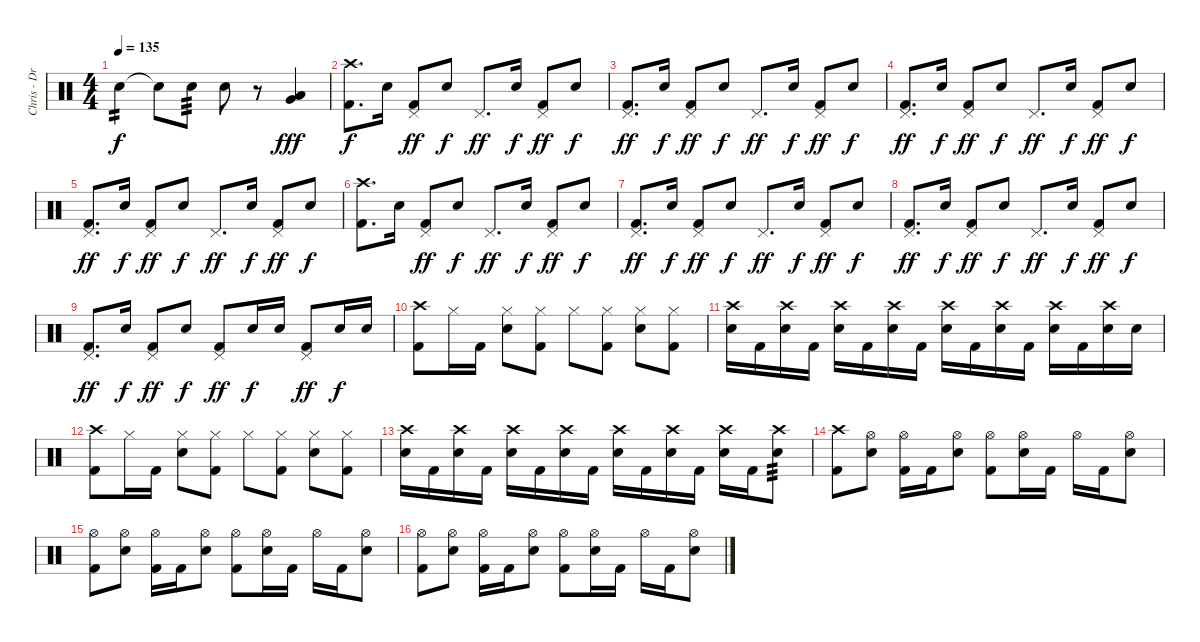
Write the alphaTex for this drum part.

\track ("Chris - Drums" "Chris - Dr") {instrument percussion}
\staff {score}
\articulation defaults
\ts (4 4)
\tempo 135
\clef neutral
\ks c "Electric Snare (hit)".4{tp 2 dy f} "Snare (hit)"{t}.8 "Electric Snare (hit)".8{tp 3} "Electric Snare (hit)".8
r.8 ("Low Tom (hit)" "Very Low Tom (hit)").4{dy fff} |
("Crash high (hit)" "Kick (hit) 2").8{d dy f} "Electric Snare (hit)".16 ("Pedal Hi-Hat (hit)" "Kick (hit) 2").8{dy ff} "Electric Snare (hit)".8{dy f} "Pedal Hi-Hat (hit)".8{d dy ff} "Electric Snare (hit)".16{dy f} ("Pedal Hi-Hat (hit)" "Kick (hit) 2").8{dy ff} "Electric Snare (hit)".8{dy f} |
("Pedal Hi-Hat (hit)" "Kick (hit) 2").8{d dy ff} "Electric Snare (hit)".16{dy f} ("Pedal Hi-Hat (hit)" "Kick (hit) 2").8{dy ff} "Electric Snare (hit)".8{dy f} "Pedal Hi-Hat (hit)".8{d dy ff} "Electric Snare (hit)".16{dy f} ("Pedal Hi-Hat (hit)" "Kick (hit) 2").8{dy ff} "Electric Snare (hit)".8{dy f} |
("Pedal Hi-Hat (hit)" "Kick (hit) 2").8{d dy ff} "Electric Snare (hit)".16{dy f} ("Pedal Hi-Hat (hit)" "Kick (hit) 2").8{dy ff} "Electric Snare (hit)".8{dy f} "Pedal Hi-Hat (hit)".8{d dy ff} "Electric Snare (hit)".16{dy f} ("Pedal Hi-Hat (hit)" "Kick (hit) 2").8{dy ff} "Electric Snare (hit)".8{dy f} |
("Pedal Hi-Hat (hit)" "Kick (hit) 2").8{d dy ff} "Electric Snare (hit)".16{dy f} ("Pedal Hi-Hat (hit)" "Kick (hit) 2").8{dy ff} "Electric Snare (hit)".8{dy f} "Pedal Hi-Hat (hit)".8{d dy ff} "Electric Snare (hit)".16{dy f} ("Pedal Hi-Hat (hit)" "Kick (hit) 2").8{dy ff} "Electric Snare (hit)".8{dy f} |
("Crash high (hit)" "Kick (hit) 2").8{d} "Electric Snare (hit)".16 ("Pedal Hi-Hat (hit)" "Kick (hit) 2").8{dy ff} "Electric Snare (hit)".8{dy f} "Pedal Hi-Hat (hit)".8{d dy ff} "Electric Snare (hit)".16{dy f} ("Pedal Hi-Hat (hit)" "Kick (hit) 2").8{dy ff} "Electric Snare (hit)".8{dy f} |
("Pedal Hi-Hat (hit)" "Kick (hit) 2").8{d dy ff} "Electric Snare (hit)".16{dy f} ("Pedal Hi-Hat (hit)" "Kick (hit) 2").8{dy ff} "Electric Snare (hit)".8{dy f} "Pedal Hi-Hat (hit)".8{d dy ff} "Electric Snare (hit)".16{dy f} ("Pedal Hi-Hat (hit)" "Kick (hit) 2").8{dy ff} "Electric Snare (hit)".8{dy f} |
("Pedal Hi-Hat (hit)" "Kick (hit) 2").8{d dy ff} "Electric Snare (hit)".16{dy f} ("Pedal Hi-Hat (hit)" "Kick (hit) 2").8{dy ff} "Electric Snare (hit)".8{dy f} "Pedal Hi-Hat (hit)".8{d dy ff} "Electric Snare (hit)".16{dy f} ("Pedal Hi-Hat (hit)" "Kick (hit) 2").8{dy ff} "Electric Snare (hit)".8{dy f} |
("Pedal Hi-Hat (hit)" "Kick (hit) 2").8{d dy ff} "Electric Snare (hit)".16{dy f} ("Pedal Hi-Hat (hit)" "Kick (hit) 2").8{dy ff} "Electric Snare (hit)".8{dy f} ("Pedal Hi-Hat (hit)" "Kick (hit) 2").8{dy ff} "Electric Snare (hit)".16{dy f} "Electric Snare (hit)".16 ("Pedal Hi-Hat (hit)" "Kick (hit) 2").8{dy ff} "Electric Snare (hit)".16{dy f} "Electric Snare (hit)".16 |
("Crash high (hit)" "Kick (hit) 2").8 "Hi-Hat (closed)".16 "Kick (hit) 2".16 ("Hi-Hat (closed)" "Electric Snare (hit)").8 ("Hi-Hat (closed)" "Kick (hit) 2").8 "Hi-Hat (closed)".8 ("Hi-Hat (closed)" "Kick (hit) 2").8 ("Hi-Hat (closed)" "Electric Snare (hit)").8 ("Hi-Hat (closed)" "Kick (hit) 2").8 |
("Crash high (hit)" "Electric Snare (hit)").16 "Kick (hit) 2".16 ("Crash high (hit)" "Electric Snare (hit)").16 "Kick (hit) 2".16 ("Crash high (hit)" "Electric Snare (hit)").16 "Kick (hit) 2".16 ("Crash high (hit)" "Electric Snare (hit)").16 "Kick (hit) 2".16 ("Crash high (hit)" "Electric Snare (hit)").16 "Kick (hit) 2".16 ("Crash high (hit)" "Electric Snare (hit)").16 "Kick (hit) 2".16 ("Crash high (hit)" "Electric Snare (hit)").16 "Kick (hit) 2".16 ("Crash high (hit)" "Electric Snare (hit)").16 "Electric Snare (hit)".16 |
("Crash high (hit)" "Kick (hit) 2").8 "Hi-Hat (closed)".16 "Kick (hit) 2".16 ("Hi-Hat (closed)" "Electric Snare (hit)").8 ("Hi-Hat (closed)" "Kick (hit) 2").8 "Hi-Hat (closed)".8 ("Hi-Hat (closed)" "Kick (hit) 2").8 ("Hi-Hat (closed)" "Electric Snare (hit)").8 ("Hi-Hat (closed)" "Kick (hit) 2").8 |
("Crash high (hit)" "Electric Snare (hit)").16 "Kick (hit) 2".16 ("Crash high (hit)" "Electric Snare (hit)").16 "Kick (hit) 2".16 ("Crash high (hit)" "Electric Snare (hit)").16 "Kick (hit) 2".16 ("Crash high (hit)" "Electric Snare (hit)").16 "Kick (hit) 2".16 ("Crash high (hit)" "Electric Snare (hit)").16 "Kick (hit) 2".16 ("Crash high (hit)" "Electric Snare (hit)").16 "Kick (hit) 2".16 ("Crash high (hit)" "Electric Snare (hit)").16 "Kick (hit) 2".16 ("Crash high (hit)" "Electric Snare (hit)").8{tp 3} |
("Crash high (hit)" "Kick (hit) 2").8 ("Hi-Hat (open)" "Electric Snare (hit)").8 ("Hi-Hat (open)" "Kick (hit) 2").16 "Kick (hit) 2".16 ("Hi-Hat (open)" "Electric Snare (hit)").8 ("Hi-Hat (open)" "Kick (hit) 2").8 ("Hi-Hat (open)" "Electric Snare (hit)").16 "Kick (hit) 2".16 "Hi-Hat (open)".16 "Kick (hit) 2".16 ("Hi-Hat (open)" "Electric Snare (hit)").8 |
("Hi-Hat (open)" "Kick (hit) 2").8 ("Hi-Hat (open)" "Electric Snare (hit)").8 ("Hi-Hat (open)" "Kick (hit) 2").16 "Kick (hit) 2".16 ("Hi-Hat (open)" "Electric Snare (hit)").8 ("Hi-Hat (open)" "Kick (hit) 2").8 ("Hi-Hat (open)" "Electric Snare (hit)").16 "Kick (hit) 2".16 "Hi-Hat (open)".16 "Kick (hit) 2".16 ("Hi-Hat (open)" "Electric Snare (hit)").8 |
("Hi-Hat (open)" "Kick (hit) 2").8 ("Hi-Hat (open)" "Electric Snare (hit)").8 ("Hi-Hat (open)" "Kick (hit) 2").16 "Kick (hit) 2".16 ("Hi-Hat (open)" "Electric Snare (hit)").8 ("Hi-Hat (open)" "Kick (hit) 2").8 ("Hi-Hat (open)" "Electric Snare (hit)").16 "Kick (hit) 2".16 "Hi-Hat (open)".16 "Kick (hit) 2".16 ("Hi-Hat (open)" "Electric Snare (hit)").8
